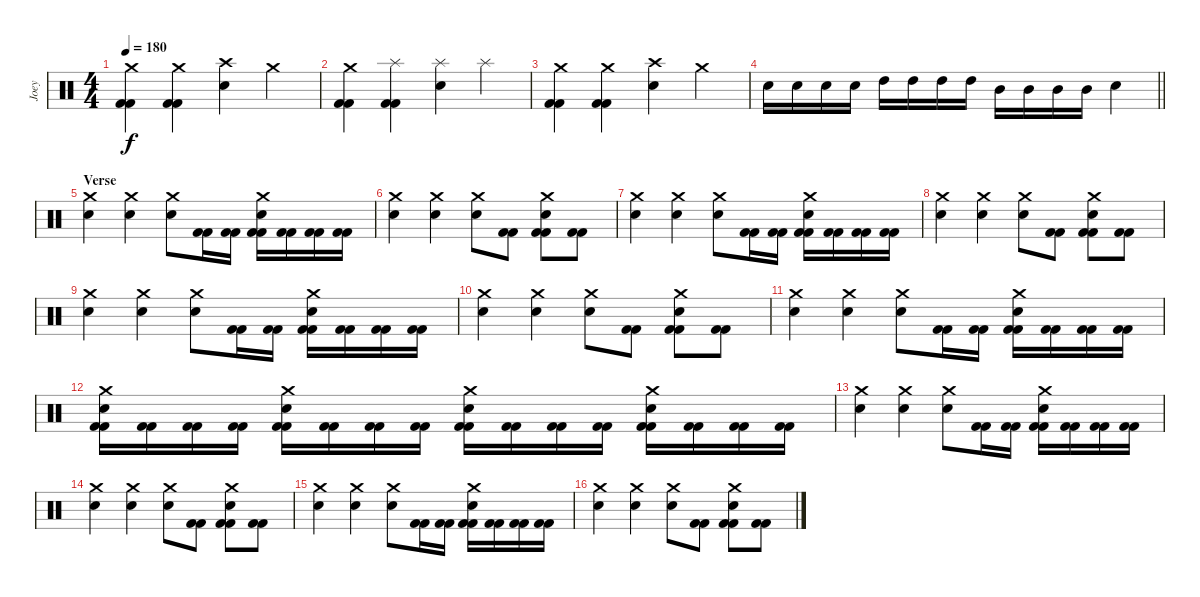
\track ("Joey" "Joey") {instrument percussion}
\staff {score}
\articulation defaults
\ts (4 4)
\tempo 180
\clef neutral
\ks c
("Crash medium (hit)" "Kick (hit) 2" "Kick (hit) 2").4{dy f} ("Crash medium (hit)" "Kick (hit) 2" "Kick (hit) 2").4 ("Electric Snare (hit)" "Crash high (hit)").4 "Crash medium (hit)".4 |
("Crash medium (hit)" "Kick (hit) 2" "Kick (hit) 2").4 ("Splash (hit)" "Kick (hit) 2" "Kick (hit) 2").4 ("Electric Snare (hit)" "Splash (hit)").4 "Splash (hit)".4 |
("Crash medium (hit)" "Kick (hit) 2" "Kick (hit) 2").4 ("Crash medium (hit)" "Kick (hit) 2" "Kick (hit) 2").4 ("Electric Snare (hit)" "Crash high (hit)").4 "Crash medium (hit)".4 |
\barLineRight lightlight "Electric Snare (hit)".16 "Electric Snare (hit)".16 "Electric Snare (hit)".16 "Electric Snare (hit)".16 "High Tom (hit)".16 "High Tom (hit)".16 "High Tom (hit)".16 "High Tom (hit)".16 "Mid Tom (hit)".16 "Mid Tom (hit)".16 "Mid Tom (hit)".16 "Mid Tom (hit)".16 "Electric Snare (hit)".4
|
\section ("" "Verse")
("Electric Snare (hit)" "Crash medium (hit)").4 ("Electric Snare (hit)" "Crash medium (hit)").4 ("Electric Snare (hit)" "Crash medium (hit)").8 ("Kick (hit) 2" "Kick (hit) 2").16 ("Kick (hit) 2" "Kick (hit) 2").16 ("Electric Snare (hit)" "Crash medium (hit)" "Kick (hit) 2" "Kick (hit) 2").16 ("Kick (hit) 2" "Kick (hit) 2").16 ("Kick (hit) 2" "Kick (hit) 2").16 ("Kick (hit) 2" "Kick (hit) 2").16 |
("Electric Snare (hit)" "Crash medium (hit)").4 ("Electric Snare (hit)" "Crash medium (hit)").4 ("Electric Snare (hit)" "Crash medium (hit)").8 ("Kick (hit) 2" "Kick (hit) 2").8 ("Electric Snare (hit)" "Crash medium (hit)" "Kick (hit) 2" "Kick (hit) 2").8 ("Kick (hit) 2" "Kick (hit) 2").8 |
("Electric Snare (hit)" "Crash medium (hit)").4 ("Electric Snare (hit)" "Crash medium (hit)").4 ("Electric Snare (hit)" "Crash medium (hit)").8 ("Kick (hit) 2" "Kick (hit) 2").16 ("Kick (hit) 2" "Kick (hit) 2").16 ("Electric Snare (hit)" "Crash medium (hit)" "Kick (hit) 2" "Kick (hit) 2").16 ("Kick (hit) 2" "Kick (hit) 2").16 ("Kick (hit) 2" "Kick (hit) 2").16 ("Kick (hit) 2" "Kick (hit) 2").16 |
("Electric Snare (hit)" "Crash medium (hit)").4 ("Electric Snare (hit)" "Crash medium (hit)").4 ("Electric Snare (hit)" "Crash medium (hit)").8 ("Kick (hit) 2" "Kick (hit) 2").8 ("Electric Snare (hit)" "Crash medium (hit)" "Kick (hit) 2" "Kick (hit) 2").8 ("Kick (hit) 2" "Kick (hit) 2").8 |
("Electric Snare (hit)" "Crash medium (hit)").4 ("Electric Snare (hit)" "Crash medium (hit)").4 ("Electric Snare (hit)" "Crash medium (hit)").8 ("Kick (hit) 2" "Kick (hit) 2").16 ("Kick (hit) 2" "Kick (hit) 2").16 ("Electric Snare (hit)" "Crash medium (hit)" "Kick (hit) 2" "Kick (hit) 2").16 ("Kick (hit) 2" "Kick (hit) 2").16 ("Kick (hit) 2" "Kick (hit) 2").16 ("Kick (hit) 2" "Kick (hit) 2").16 |
("Electric Snare (hit)" "Crash medium (hit)").4 ("Electric Snare (hit)" "Crash medium (hit)").4 ("Electric Snare (hit)" "Crash medium (hit)").8 ("Kick (hit) 2" "Kick (hit) 2").8 ("Electric Snare (hit)" "Crash medium (hit)" "Kick (hit) 2" "Kick (hit) 2").8 ("Kick (hit) 2" "Kick (hit) 2").8 |
("Electric Snare (hit)" "Crash medium (hit)").4 ("Electric Snare (hit)" "Crash medium (hit)").4 ("Electric Snare (hit)" "Crash medium (hit)").8 ("Kick (hit) 2" "Kick (hit) 2").16 ("Kick (hit) 2" "Kick (hit) 2").16 ("Electric Snare (hit)" "Crash medium (hit)" "Kick (hit) 2" "Kick (hit) 2").16 ("Kick (hit) 2" "Kick (hit) 2").16 ("Kick (hit) 2" "Kick (hit) 2").16 ("Kick (hit) 2" "Kick (hit) 2").16 |
("Electric Snare (hit)" "Crash medium (hit)" "Kick (hit) 2" "Kick (hit) 2").16 ("Kick (hit) 2" "Kick (hit) 2").16 ("Kick (hit) 2" "Kick (hit) 2").16 ("Kick (hit) 2" "Kick (hit) 2").16 ("Electric Snare (hit)" "Crash medium (hit)" "Kick (hit) 2" "Kick (hit) 2").16 ("Kick (hit) 2" "Kick (hit) 2").16 ("Kick (hit) 2" "Kick (hit) 2").16 ("Kick (hit) 2" "Kick (hit) 2").16 ("Electric Snare (hit)" "Crash medium (hit)" "Kick (hit) 2" "Kick (hit) 2").16 ("Kick (hit) 2" "Kick (hit) 2").16 ("Kick (hit) 2" "Kick (hit) 2").16 ("Kick (hit) 2" "Kick (hit) 2").16 ("Electric Snare (hit)" "Crash medium (hit)" "Kick (hit) 2" "Kick (hit) 2").16 ("Kick (hit) 2" "Kick (hit) 2").16 ("Kick (hit) 2" "Kick (hit) 2").16 ("Kick (hit) 2" "Kick (hit) 2").16 |
("Electric Snare (hit)" "Crash medium (hit)").4 ("Electric Snare (hit)" "Crash medium (hit)").4 ("Electric Snare (hit)" "Crash medium (hit)").8 ("Kick (hit) 2" "Kick (hit) 2").16 ("Kick (hit) 2" "Kick (hit) 2").16 ("Electric Snare (hit)" "Crash medium (hit)" "Kick (hit) 2" "Kick (hit) 2").16 ("Kick (hit) 2" "Kick (hit) 2").16 ("Kick (hit) 2" "Kick (hit) 2").16 ("Kick (hit) 2" "Kick (hit) 2").16 |
("Electric Snare (hit)" "Crash medium (hit)").4 ("Electric Snare (hit)" "Crash medium (hit)").4 ("Electric Snare (hit)" "Crash medium (hit)").8 ("Kick (hit) 2" "Kick (hit) 2").8 ("Electric Snare (hit)" "Crash medium (hit)" "Kick (hit) 2" "Kick (hit) 2").8 ("Kick (hit) 2" "Kick (hit) 2").8 |
("Electric Snare (hit)" "Crash medium (hit)").4 ("Electric Snare (hit)" "Crash medium (hit)").4 ("Electric Snare (hit)" "Crash medium (hit)").8 ("Kick (hit) 2" "Kick (hit) 2").16 ("Kick (hit) 2" "Kick (hit) 2").16 ("Electric Snare (hit)" "Crash medium (hit)" "Kick (hit) 2" "Kick (hit) 2").16 ("Kick (hit) 2" "Kick (hit) 2").16 ("Kick (hit) 2" "Kick (hit) 2").16 ("Kick (hit) 2" "Kick (hit) 2").16 |
("Electric Snare (hit)" "Crash medium (hit)").4 ("Electric Snare (hit)" "Crash medium (hit)").4 ("Electric Snare (hit)" "Crash medium (hit)").8 ("Kick (hit) 2" "Kick (hit) 2").8 ("Electric Snare (hit)" "Crash medium (hit)" "Kick (hit) 2" "Kick (hit) 2").8 ("Kick (hit) 2" "Kick (hit) 2").8
